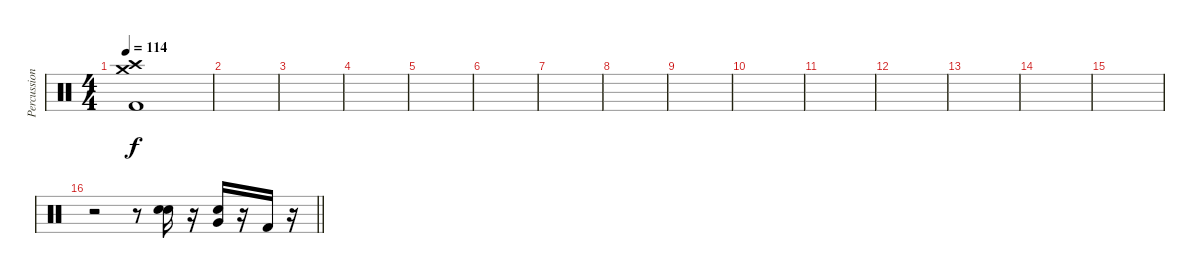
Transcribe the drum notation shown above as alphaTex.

\track ("Percussion" "Percussion") {instrument percussion}
\staff {score}
\articulation defaults
\ts (4 4)
\section ("" "")
\tempo 114
\clef neutral
\ks c
("Crash medium (hit)" "Crash high (hit)" "Kick (hit) 2").1{dy f} |
|
|
|
|
|
|
|
|
|
|
|
|
|
|
\barLineRight lightlight
r.2 r.8 ("Electric Snare (hit)" "Electric Snare (hit)").16 r.16 ("Very Low Tom (hit)" "Electric Snare (hit)").16 r.16 "Kick (hit) 2".16 r.16
